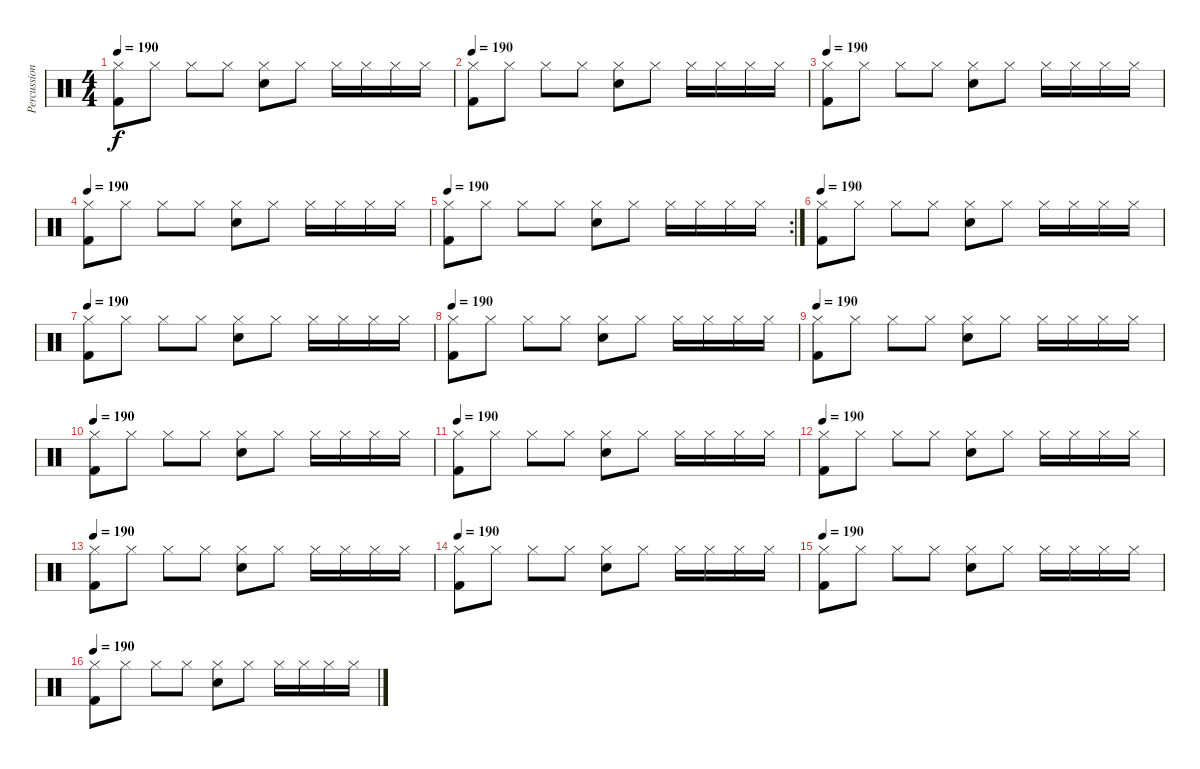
\track ("Percussion" "Percussion") {instrument percussion}
\staff {score}
\articulation defaults
\ts (4 4)
\tempo 190
\clef neutral
\ks c
("Hi-Hat (closed)" "Kick (hit) 2").8{dy f} "Hi-Hat (closed)".8 "Hi-Hat (closed)".8 "Hi-Hat (closed)".8 ("Hi-Hat (closed)" "Electric Snare (hit)").8 "Hi-Hat (closed)".8 "Hi-Hat (closed)".16 "Hi-Hat (closed)".16 "Hi-Hat (closed)".16 "Hi-Hat (closed)".16 |
\tempo 190
("Hi-Hat (closed)" "Kick (hit) 2").8 "Hi-Hat (closed)".8 "Hi-Hat (closed)".8 "Hi-Hat (closed)".8 ("Hi-Hat (closed)" "Electric Snare (hit)").8 "Hi-Hat (closed)".8 "Hi-Hat (closed)".16 "Hi-Hat (closed)".16 "Hi-Hat (closed)".16 "Hi-Hat (closed)".16 |
\tempo 190
("Hi-Hat (closed)" "Kick (hit) 2").8 "Hi-Hat (closed)".8 "Hi-Hat (closed)".8 "Hi-Hat (closed)".8 ("Hi-Hat (closed)" "Electric Snare (hit)").8 "Hi-Hat (closed)".8 "Hi-Hat (closed)".16 "Hi-Hat (closed)".16 "Hi-Hat (closed)".16 "Hi-Hat (closed)".16 |
\tempo 190
("Hi-Hat (closed)" "Kick (hit) 2").8 "Hi-Hat (closed)".8 "Hi-Hat (closed)".8 "Hi-Hat (closed)".8 ("Hi-Hat (closed)" "Electric Snare (hit)").8 "Hi-Hat (closed)".8 "Hi-Hat (closed)".16 "Hi-Hat (closed)".16 "Hi-Hat (closed)".16 "Hi-Hat (closed)".16 |
\rc 2
\tempo 190
("Hi-Hat (closed)" "Kick (hit) 2").8 "Hi-Hat (closed)".8 "Hi-Hat (closed)".8 "Hi-Hat (closed)".8 ("Hi-Hat (closed)" "Electric Snare (hit)").8 "Hi-Hat (closed)".8 "Hi-Hat (closed)".16 "Hi-Hat (closed)".16 "Hi-Hat (closed)".16 "Hi-Hat (closed)".16 |
\tempo 190
("Hi-Hat (closed)" "Kick (hit) 2").8 "Hi-Hat (closed)".8 "Hi-Hat (closed)".8 "Hi-Hat (closed)".8 ("Hi-Hat (closed)" "Electric Snare (hit)").8 "Hi-Hat (closed)".8 "Hi-Hat (closed)".16 "Hi-Hat (closed)".16 "Hi-Hat (closed)".16 "Hi-Hat (closed)".16 |
\tempo 190
("Hi-Hat (closed)" "Kick (hit) 2").8 "Hi-Hat (closed)".8 "Hi-Hat (closed)".8 "Hi-Hat (closed)".8 ("Hi-Hat (closed)" "Electric Snare (hit)").8 "Hi-Hat (closed)".8 "Hi-Hat (closed)".16 "Hi-Hat (closed)".16 "Hi-Hat (closed)".16 "Hi-Hat (closed)".16 |
\tempo 190
("Hi-Hat (closed)" "Kick (hit) 2").8 "Hi-Hat (closed)".8 "Hi-Hat (closed)".8 "Hi-Hat (closed)".8 ("Hi-Hat (closed)" "Electric Snare (hit)").8 "Hi-Hat (closed)".8 "Hi-Hat (closed)".16 "Hi-Hat (closed)".16 "Hi-Hat (closed)".16 "Hi-Hat (closed)".16 |
\tempo 190
("Hi-Hat (closed)" "Kick (hit) 2").8 "Hi-Hat (closed)".8 "Hi-Hat (closed)".8 "Hi-Hat (closed)".8 ("Hi-Hat (closed)" "Electric Snare (hit)").8 "Hi-Hat (closed)".8 "Hi-Hat (closed)".16 "Hi-Hat (closed)".16 "Hi-Hat (closed)".16 "Hi-Hat (closed)".16 |
\tempo 190
("Hi-Hat (closed)" "Kick (hit) 2").8 "Hi-Hat (closed)".8 "Hi-Hat (closed)".8 "Hi-Hat (closed)".8 ("Hi-Hat (closed)" "Electric Snare (hit)").8 "Hi-Hat (closed)".8 "Hi-Hat (closed)".16 "Hi-Hat (closed)".16 "Hi-Hat (closed)".16 "Hi-Hat (closed)".16 |
\tempo 190
("Hi-Hat (closed)" "Kick (hit) 2").8 "Hi-Hat (closed)".8 "Hi-Hat (closed)".8 "Hi-Hat (closed)".8 ("Hi-Hat (closed)" "Electric Snare (hit)").8 "Hi-Hat (closed)".8 "Hi-Hat (closed)".16 "Hi-Hat (closed)".16 "Hi-Hat (closed)".16 "Hi-Hat (closed)".16 |
\tempo 190
("Hi-Hat (closed)" "Kick (hit) 2").8 "Hi-Hat (closed)".8 "Hi-Hat (closed)".8 "Hi-Hat (closed)".8 ("Hi-Hat (closed)" "Electric Snare (hit)").8 "Hi-Hat (closed)".8 "Hi-Hat (closed)".16 "Hi-Hat (closed)".16 "Hi-Hat (closed)".16 "Hi-Hat (closed)".16 |
\tempo 190
("Hi-Hat (closed)" "Kick (hit) 2").8 "Hi-Hat (closed)".8 "Hi-Hat (closed)".8 "Hi-Hat (closed)".8 ("Hi-Hat (closed)" "Electric Snare (hit)").8 "Hi-Hat (closed)".8 "Hi-Hat (closed)".16 "Hi-Hat (closed)".16 "Hi-Hat (closed)".16 "Hi-Hat (closed)".16 |
\tempo 190
("Hi-Hat (closed)" "Kick (hit) 2").8 "Hi-Hat (closed)".8 "Hi-Hat (closed)".8 "Hi-Hat (closed)".8 ("Hi-Hat (closed)" "Electric Snare (hit)").8 "Hi-Hat (closed)".8 "Hi-Hat (closed)".16 "Hi-Hat (closed)".16 "Hi-Hat (closed)".16 "Hi-Hat (closed)".16 |
\tempo 190
("Hi-Hat (closed)" "Kick (hit) 2").8 "Hi-Hat (closed)".8 "Hi-Hat (closed)".8 "Hi-Hat (closed)".8 ("Hi-Hat (closed)" "Electric Snare (hit)").8 "Hi-Hat (closed)".8 "Hi-Hat (closed)".16 "Hi-Hat (closed)".16 "Hi-Hat (closed)".16 "Hi-Hat (closed)".16 |
\tempo 190
("Hi-Hat (closed)" "Kick (hit) 2").8 "Hi-Hat (closed)".8 "Hi-Hat (closed)".8 "Hi-Hat (closed)".8 ("Hi-Hat (closed)" "Electric Snare (hit)").8 "Hi-Hat (closed)".8 "Hi-Hat (closed)".16 "Hi-Hat (closed)".16 "Hi-Hat (closed)".16 "Hi-Hat (closed)".16
